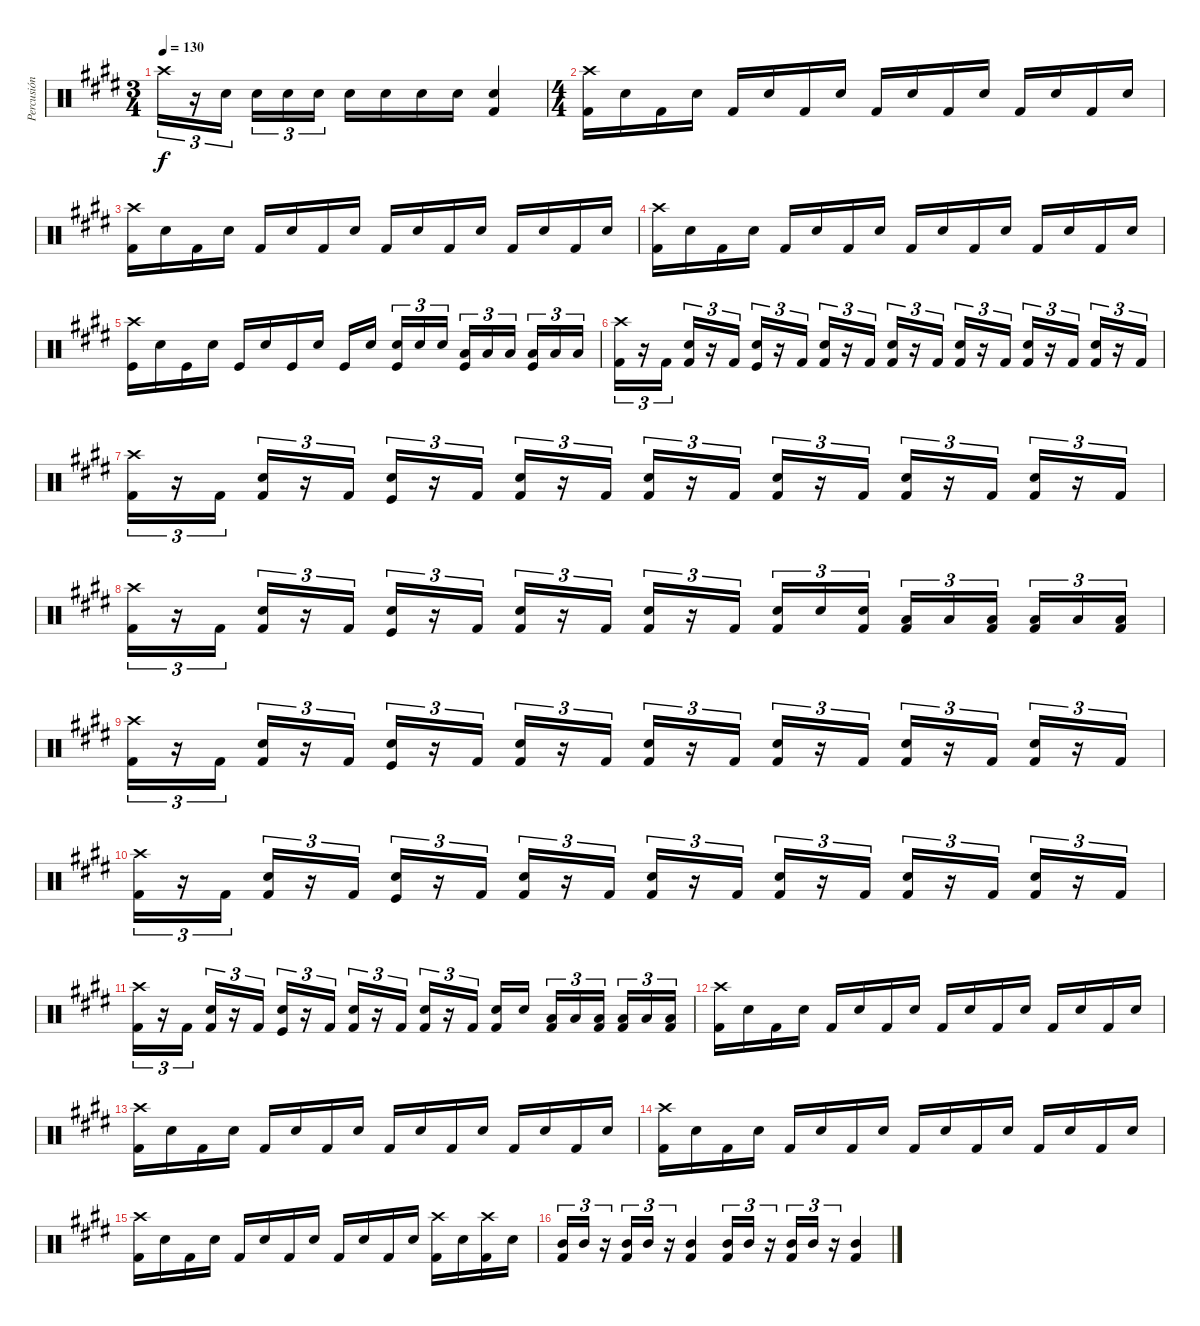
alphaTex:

\track ("Percusión" "Percusión") {instrument percussion}
\staff {score}
\articulation defaults
\ts (3 4)
\tempo 130
\clef neutral
\ks e "Crash high (hit)".16{tu (3 2) dy f}
r.16{tu (3 2)} "Electric Snare (hit)".16{tu (3 2)} "Electric Snare (hit)".16{tu (3 2)} "Electric Snare (hit)".16{tu (3 2)} "Electric Snare (hit)".16{tu (3 2)} "Electric Snare (hit)".16 "Electric Snare (hit)".16 "Electric Snare (hit)".16 "Electric Snare (hit)".16 ("Snare (hit) 2" "Kick (hit) 2").4 |
\ts (4 4)
("Crash high (hit)" "Kick (hit) 2").16 "Electric Snare (hit)".16 "Kick (hit) 2".16 "Electric Snare (hit)".16 "Kick (hit) 2".16 "Electric Snare (hit)".16 "Kick (hit) 2".16 "Electric Snare (hit)".16 "Kick (hit) 2".16 "Electric Snare (hit)".16 "Kick (hit) 2".16 "Electric Snare (hit)".16 "Kick (hit) 2".16 "Electric Snare (hit)".16 "Kick (hit) 2".16 "Electric Snare (hit)".16 |
("Crash high (hit)" "Kick (hit) 2").16 "Electric Snare (hit)".16 "Kick (hit) 2".16 "Electric Snare (hit)".16 "Kick (hit) 2".16 "Electric Snare (hit)".16 "Kick (hit) 2".16 "Electric Snare (hit)".16 "Kick (hit) 2".16 "Electric Snare (hit)".16 "Kick (hit) 2".16 "Electric Snare (hit)".16 "Kick (hit) 2".16 "Electric Snare (hit)".16 "Kick (hit) 2".16 "Electric Snare (hit)".16 |
("Crash high (hit)" "Kick (hit) 2").16 "Electric Snare (hit)".16 "Kick (hit) 2".16 "Electric Snare (hit)".16 "Kick (hit) 2".16 "Electric Snare (hit)".16 "Kick (hit) 2".16 "Electric Snare (hit)".16 "Kick (hit) 2".16 "Electric Snare (hit)".16 "Kick (hit) 2".16 "Electric Snare (hit)".16 "Kick (hit) 2".16 "Electric Snare (hit)".16 "Kick (hit) 2".16 "Electric Snare (hit)".16 |
("Crash high (hit)" "Kick (hit)").16 "Electric Snare (hit)".16 "Kick (hit)".16 "Electric Snare (hit)".16 "Kick (hit)".16 "Electric Snare (hit)".16 "Kick (hit)".16 "Electric Snare (hit)".16 "Kick (hit)".16 "Electric Snare (hit)".16 ("Electric Snare (hit)" "Kick (hit)").16{tu (3 2)} "Electric Snare (hit)".16{tu (3 2)} "Electric Snare (hit)".16{tu (3 2)} ("Low Tom (hit)" "Kick (hit)").16{tu (3 2)} "Low Tom (hit)".16{tu (3 2)} "Low Tom (hit)".16{tu (3 2)} ("Low Tom (hit)" "Kick (hit)").16{tu (3 2)} "Low Tom (hit)".16{tu (3 2)} "Low Tom (hit)".16{tu (3 2)} |
("Crash high (hit)" "Kick (hit) 2").16{tu (3 2)} r.16{tu (3 2)} "Kick (hit) 2".16{tu (3 2)} ("Snare (hit) 2" "Kick (hit) 2").16{tu (3 2)} r.16{tu (3 2)} "Kick (hit) 2".16{tu (3 2)} ("Snare (hit) 2" "Kick (hit)").16{tu (3 2)} r.16{tu (3 2)} "Kick (hit) 2".16{tu (3 2)} ("Snare (hit) 2" "Kick (hit) 2").16{tu (3 2)} r.16{tu (3 2)} "Kick (hit) 2".16{tu (3 2)} ("Snare (hit) 2" "Kick (hit) 2").16{tu (3 2)} r.16{tu (3 2)} "Kick (hit) 2".16{tu (3 2)} ("Snare (hit) 2" "Kick (hit) 2").16{tu (3 2)} r.16{tu (3 2)} "Kick (hit) 2".16{tu (3 2)} ("Snare (hit) 2" "Kick (hit) 2").16{tu (3 2)} r.16{tu (3 2)} "Kick (hit) 2".16{tu (3 2)} ("Snare (hit) 2" "Kick (hit) 2").16{tu (3 2)} r.16{tu (3 2)} "Kick (hit) 2".16{tu (3 2)} |
("Crash high (hit)" "Kick (hit) 2").16{tu (3 2)} r.16{tu (3 2)} "Kick (hit) 2".16{tu (3 2)} ("Snare (hit) 2" "Kick (hit) 2").16{tu (3 2)} r.16{tu (3 2)} "Kick (hit) 2".16{tu (3 2)} ("Snare (hit) 2" "Kick (hit)").16{tu (3 2)} r.16{tu (3 2)} "Kick (hit) 2".16{tu (3 2)} ("Snare (hit) 2" "Kick (hit) 2").16{tu (3 2)} r.16{tu (3 2)} "Kick (hit) 2".16{tu (3 2)} ("Snare (hit) 2" "Kick (hit) 2").16{tu (3 2)} r.16{tu (3 2)} "Kick (hit) 2".16{tu (3 2)} ("Snare (hit) 2" "Kick (hit) 2").16{tu (3 2)} r.16{tu (3 2)} "Kick (hit) 2".16{tu (3 2)} ("Snare (hit) 2" "Kick (hit) 2").16{tu (3 2)} r.16{tu (3 2)} "Kick (hit) 2".16{tu (3 2)} ("Snare (hit) 2" "Kick (hit) 2").16{tu (3 2)} r.16{tu (3 2)} "Kick (hit) 2".16{tu (3 2)} |
("Crash high (hit)" "Kick (hit) 2").16{tu (3 2)} r.16{tu (3 2)} "Kick (hit) 2".16{tu (3 2)} ("Snare (hit) 2" "Kick (hit) 2").16{tu (3 2)} r.16{tu (3 2)} "Kick (hit) 2".16{tu (3 2)} ("Snare (hit) 2" "Kick (hit)").16{tu (3 2)} r.16{tu (3 2)} "Kick (hit) 2".16{tu (3 2)} ("Snare (hit) 2" "Kick (hit) 2").16{tu (3 2)} r.16{tu (3 2)} "Kick (hit) 2".16{tu (3 2)} ("Snare (hit) 2" "Kick (hit) 2").16{tu (3 2)} r.16{tu (3 2)} "Kick (hit) 2".16{tu (3 2)} ("Electric Snare (hit)" "Kick (hit) 2").16{tu (3 2)} "Electric Snare (hit)".16{tu (3 2)} ("Electric Snare (hit)" "Kick (hit) 2").16{tu (3 2)} ("Low Tom (hit)" "Kick (hit) 2").16{tu (3 2)} "Low Tom (hit)".16{tu (3 2)} ("Low Tom (hit)" "Kick (hit) 2").16{tu (3 2)} ("Low Tom (hit)" "Kick (hit) 2").16{tu (3 2)} "Low Tom (hit)".16{tu (3 2)} ("Low Tom (hit)" "Kick (hit) 2").16{tu (3 2)} |
("Crash high (hit)" "Kick (hit) 2").16{tu (3 2)} r.16{tu (3 2)} "Kick (hit) 2".16{tu (3 2)} ("Snare (hit) 2" "Kick (hit) 2").16{tu (3 2)} r.16{tu (3 2)} "Kick (hit) 2".16{tu (3 2)} ("Snare (hit) 2" "Kick (hit)").16{tu (3 2)} r.16{tu (3 2)} "Kick (hit) 2".16{tu (3 2)} ("Snare (hit) 2" "Kick (hit) 2").16{tu (3 2)} r.16{tu (3 2)} "Kick (hit) 2".16{tu (3 2)} ("Snare (hit) 2" "Kick (hit) 2").16{tu (3 2)} r.16{tu (3 2)} "Kick (hit) 2".16{tu (3 2)} ("Snare (hit) 2" "Kick (hit) 2").16{tu (3 2)} r.16{tu (3 2)} "Kick (hit) 2".16{tu (3 2)} ("Snare (hit) 2" "Kick (hit) 2").16{tu (3 2)} r.16{tu (3 2)} "Kick (hit) 2".16{tu (3 2)} ("Snare (hit) 2" "Kick (hit) 2").16{tu (3 2)} r.16{tu (3 2)} "Kick (hit) 2".16{tu (3 2)} |
("Crash high (hit)" "Kick (hit) 2").16{tu (3 2)} r.16{tu (3 2)} "Kick (hit) 2".16{tu (3 2)} ("Snare (hit) 2" "Kick (hit) 2").16{tu (3 2)} r.16{tu (3 2)} "Kick (hit) 2".16{tu (3 2)} ("Snare (hit) 2" "Kick (hit)").16{tu (3 2)} r.16{tu (3 2)} "Kick (hit) 2".16{tu (3 2)} ("Snare (hit) 2" "Kick (hit) 2").16{tu (3 2)} r.16{tu (3 2)} "Kick (hit) 2".16{tu (3 2)} ("Snare (hit) 2" "Kick (hit) 2").16{tu (3 2)} r.16{tu (3 2)} "Kick (hit) 2".16{tu (3 2)} ("Snare (hit) 2" "Kick (hit) 2").16{tu (3 2)} r.16{tu (3 2)} "Kick (hit) 2".16{tu (3 2)} ("Snare (hit) 2" "Kick (hit) 2").16{tu (3 2)} r.16{tu (3 2)} "Kick (hit) 2".16{tu (3 2)} ("Snare (hit) 2" "Kick (hit) 2").16{tu (3 2)} r.16{tu (3 2)} "Kick (hit) 2".16{tu (3 2)} |
("Crash high (hit)" "Kick (hit) 2").16{tu (3 2)} r.16{tu (3 2)} "Kick (hit) 2".16{tu (3 2)} ("Snare (hit) 2" "Kick (hit) 2").16{tu (3 2)} r.16{tu (3 2)} "Kick (hit) 2".16{tu (3 2)} ("Snare (hit) 2" "Kick (hit)").16{tu (3 2)} r.16{tu (3 2)} "Kick (hit) 2".16{tu (3 2)} ("Snare (hit) 2" "Kick (hit) 2").16{tu (3 2)} r.16{tu (3 2)} "Kick (hit) 2".16{tu (3 2)} ("Snare (hit) 2" "Kick (hit) 2").16{tu (3 2)} r.16{tu (3 2)} "Kick (hit) 2".16{tu (3 2)} ("Electric Snare (hit)" "Kick (hit) 2").16 "Electric Snare (hit)".16 ("Low Tom (hit)" "Kick (hit) 2").16{tu (3 2)} "Low Tom (hit)".16{tu (3 2)} ("Low Tom (hit)" "Kick (hit) 2").16{tu (3 2)} ("Low Tom (hit)" "Kick (hit) 2").16{tu (3 2)} "Low Tom (hit)".16{tu (3 2)} ("Low Tom (hit)" "Kick (hit) 2").16{tu (3 2)} |
("Crash high (hit)" "Kick (hit) 2").16 "Electric Snare (hit)".16 "Kick (hit) 2".16 "Electric Snare (hit)".16 "Kick (hit) 2".16 "Electric Snare (hit)".16 "Kick (hit) 2".16 "Electric Snare (hit)".16 "Kick (hit) 2".16 "Electric Snare (hit)".16 "Kick (hit) 2".16 "Electric Snare (hit)".16 "Kick (hit) 2".16 "Electric Snare (hit)".16 "Kick (hit) 2".16 "Electric Snare (hit)".16 |
("Crash high (hit)" "Kick (hit) 2").16 "Electric Snare (hit)".16 "Kick (hit) 2".16 "Electric Snare (hit)".16 "Kick (hit) 2".16 "Electric Snare (hit)".16 "Kick (hit) 2".16 "Electric Snare (hit)".16 "Kick (hit) 2".16 "Electric Snare (hit)".16 "Kick (hit) 2".16 "Electric Snare (hit)".16 "Kick (hit) 2".16 "Electric Snare (hit)".16 "Kick (hit) 2".16 "Electric Snare (hit)".16 |
("Crash high (hit)" "Kick (hit) 2").16 "Electric Snare (hit)".16 "Kick (hit) 2".16 "Electric Snare (hit)".16 "Kick (hit) 2".16 "Electric Snare (hit)".16 "Kick (hit) 2".16 "Electric Snare (hit)".16 "Kick (hit) 2".16 "Electric Snare (hit)".16 "Kick (hit) 2".16 "Electric Snare (hit)".16 "Kick (hit) 2".16 "Electric Snare (hit)".16 "Kick (hit) 2".16 "Electric Snare (hit)".16 |
("Crash high (hit)" "Kick (hit) 2").16 "Electric Snare (hit)".16 "Kick (hit) 2".16 "Electric Snare (hit)".16 "Kick (hit) 2".16 "Electric Snare (hit)".16 "Kick (hit) 2".16 "Electric Snare (hit)".16 "Kick (hit) 2".16 "Electric Snare (hit)".16 "Kick (hit) 2".16 "Electric Snare (hit)".16 ("Crash high (hit)" "Kick (hit) 2").16 "Electric Snare (hit)".16 ("Crash high (hit)" "Kick (hit) 2").16 "Electric Snare (hit)".16 |
("Mid Tom (hit)" "Kick (hit) 2").16{tu (3 2)} "Mid Tom (hit)".16{tu (3 2)} r.16{tu (3 2)} ("Mid Tom (hit)" "Kick (hit) 2").16{tu (3 2)} "Mid Tom (hit)".16{tu (3 2)} r.16{tu (3 2)} ("Mid Tom (hit)" "Kick (hit) 2").4 ("Mid Tom (hit)" "Kick (hit) 2").16{tu (3 2)} "Mid Tom (hit)".16{tu (3 2)} r.16{tu (3 2)} ("Mid Tom (hit)" "Kick (hit) 2").16{tu (3 2)} "Mid Tom (hit)".16{tu (3 2)} r.16{tu (3 2)} ("Mid Tom (hit)" "Kick (hit) 2").4
